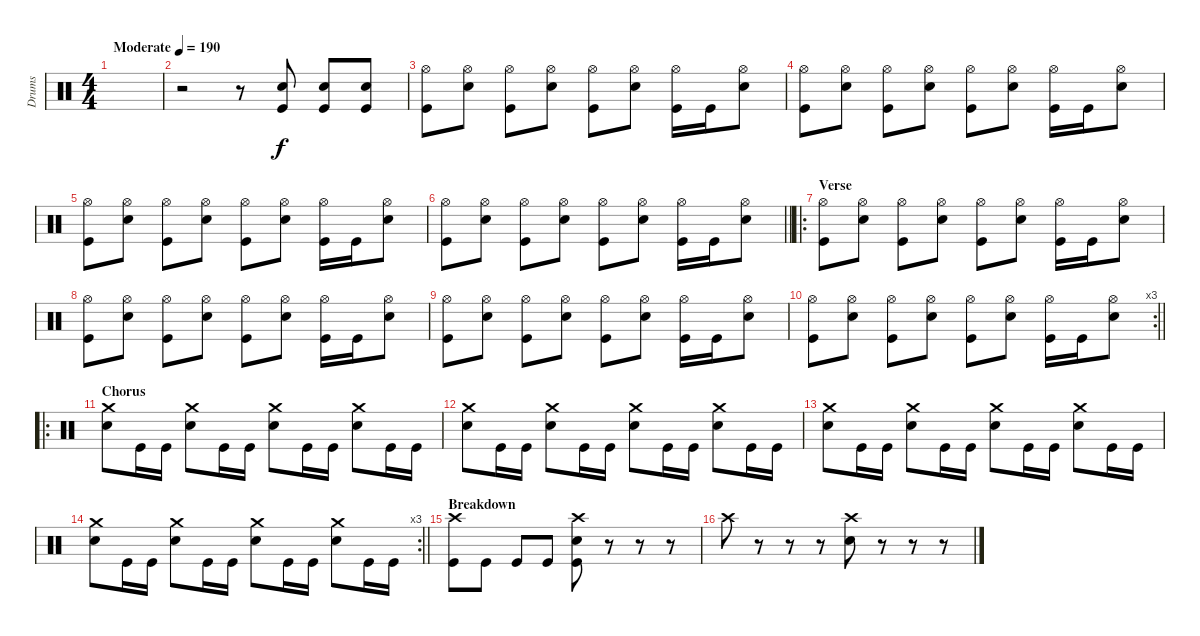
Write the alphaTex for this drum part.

\track ("Drums" "Drums") {instrument percussion}
\staff {score}
\articulation defaults
\ts (4 4)
\tempo (190 "Moderate")
\clef neutral
\ks c
|
r.2 r.8 ("Snare (hit) 2" "Kick (hit)").8 ("Snare (hit) 2" "Kick (hit)").8 ("Snare (hit) 2" "Kick (hit)").8 |
("Hi-Hat (open)" "Kick (hit)").8 ("Hi-Hat (open)" "Snare (hit) 2").8 ("Hi-Hat (open)" "Kick (hit)").8 ("Hi-Hat (open)" "Snare (hit) 2").8 ("Hi-Hat (open)" "Kick (hit)").8 ("Hi-Hat (open)" "Snare (hit) 2").8 ("Hi-Hat (open)" "Kick (hit)").16 "Kick (hit)".16 ("Hi-Hat (open)" "Snare (hit) 2").8 |
("Hi-Hat (open)" "Kick (hit)").8 ("Hi-Hat (open)" "Snare (hit) 2").8 ("Hi-Hat (open)" "Kick (hit)").8 ("Hi-Hat (open)" "Snare (hit) 2").8 ("Hi-Hat (open)" "Kick (hit)").8 ("Hi-Hat (open)" "Snare (hit) 2").8 ("Hi-Hat (open)" "Kick (hit)").16 "Kick (hit)".16 ("Hi-Hat (open)" "Snare (hit) 2").8 |
("Hi-Hat (open)" "Kick (hit)").8 ("Hi-Hat (open)" "Snare (hit) 2").8 ("Hi-Hat (open)" "Kick (hit)").8 ("Hi-Hat (open)" "Snare (hit) 2").8 ("Hi-Hat (open)" "Kick (hit)").8 ("Hi-Hat (open)" "Snare (hit) 2").8 ("Hi-Hat (open)" "Kick (hit)").16 "Kick (hit)".16 ("Hi-Hat (open)" "Snare (hit) 2").8 |
\barLineRight lightlight
("Hi-Hat (open)" "Kick (hit)").8 ("Hi-Hat (open)" "Snare (hit) 2").8 ("Hi-Hat (open)" "Kick (hit)").8 ("Hi-Hat (open)" "Snare (hit) 2").8 ("Hi-Hat (open)" "Kick (hit)").8 ("Hi-Hat (open)" "Snare (hit) 2").8 ("Hi-Hat (open)" "Kick (hit)").16 "Kick (hit)".16 ("Hi-Hat (open)" "Snare (hit) 2").8 |
\ro
\section ("" "Verse")
("Hi-Hat (open)" "Kick (hit)").8 ("Hi-Hat (open)" "Snare (hit) 2").8 ("Hi-Hat (open)" "Kick (hit)").8 ("Hi-Hat (open)" "Snare (hit) 2").8 ("Hi-Hat (open)" "Kick (hit)").8 ("Hi-Hat (open)" "Snare (hit) 2").8 ("Hi-Hat (open)" "Kick (hit)").16 "Kick (hit)".16 ("Hi-Hat (open)" "Snare (hit) 2").8 |
("Hi-Hat (open)" "Kick (hit)").8 ("Hi-Hat (open)" "Snare (hit) 2").8 ("Hi-Hat (open)" "Kick (hit)").8 ("Hi-Hat (open)" "Snare (hit) 2").8 ("Hi-Hat (open)" "Kick (hit)").8 ("Hi-Hat (open)" "Snare (hit) 2").8 ("Hi-Hat (open)" "Kick (hit)").16 "Kick (hit)".16 ("Hi-Hat (open)" "Snare (hit) 2").8 |
("Hi-Hat (open)" "Kick (hit)").8 ("Hi-Hat (open)" "Snare (hit) 2").8 ("Hi-Hat (open)" "Kick (hit)").8 ("Hi-Hat (open)" "Snare (hit) 2").8 ("Hi-Hat (open)" "Kick (hit)").8 ("Hi-Hat (open)" "Snare (hit) 2").8 ("Hi-Hat (open)" "Kick (hit)").16 "Kick (hit)".16 ("Hi-Hat (open)" "Snare (hit) 2").8 |
\rc 3
\barLineRight lightlight
("Hi-Hat (open)" "Kick (hit)").8 ("Hi-Hat (open)" "Snare (hit) 2").8 ("Hi-Hat (open)" "Kick (hit)").8 ("Hi-Hat (open)" "Snare (hit) 2").8 ("Hi-Hat (open)" "Kick (hit)").8 ("Hi-Hat (open)" "Snare (hit) 2").8 ("Hi-Hat (open)" "Kick (hit)").16 "Kick (hit)".16 ("Hi-Hat (open)" "Snare (hit) 2").8 |
\ro
\section ("" "Chorus")
("Crash medium (hit)" "Snare (hit) 2").8 "Kick (hit)".16 "Kick (hit)".16 ("Crash medium (hit)" "Snare (hit) 2").8 "Kick (hit)".16 "Kick (hit)".16 ("Crash medium (hit)" "Snare (hit) 2").8 "Kick (hit)".16 "Kick (hit)".16 ("Crash medium (hit)" "Snare (hit) 2").8 "Kick (hit)".16 "Kick (hit)".16 |
("Crash medium (hit)" "Snare (hit) 2").8 "Kick (hit)".16 "Kick (hit)".16 ("Crash medium (hit)" "Snare (hit) 2").8 "Kick (hit)".16 "Kick (hit)".16 ("Crash medium (hit)" "Snare (hit) 2").8 "Kick (hit)".16 "Kick (hit)".16 ("Crash medium (hit)" "Snare (hit) 2").8 "Kick (hit)".16 "Kick (hit)".16 |
("Crash medium (hit)" "Snare (hit) 2").8 "Kick (hit)".16 "Kick (hit)".16 ("Crash medium (hit)" "Snare (hit) 2").8 "Kick (hit)".16 "Kick (hit)".16 ("Crash medium (hit)" "Snare (hit) 2").8 "Kick (hit)".16 "Kick (hit)".16 ("Crash medium (hit)" "Snare (hit) 2").8 "Kick (hit)".16 "Kick (hit)".16 |
\rc 3
\barLineRight lightlight
("Crash medium (hit)" "Snare (hit) 2").8 "Kick (hit)".16 "Kick (hit)".16 ("Crash medium (hit)" "Snare (hit) 2").8 "Kick (hit)".16 "Kick (hit)".16 ("Crash medium (hit)" "Snare (hit) 2").8 "Kick (hit)".16 "Kick (hit)".16 ("Crash medium (hit)" "Snare (hit) 2").8 "Kick (hit)".16 "Kick (hit)".16 |
\section ("" "Breakdown")
("Crash high (hit)" "Kick (hit)").8 "Kick (hit)".8 "Kick (hit)".8 "Kick (hit)".8 ("Crash high (hit)" "Snare (hit) 2" "Kick (hit)").8 r.8 r.8 r.8 |
"Crash high (hit)".8 r.8 r.8 r.8 ("Crash high (hit)" "Snare (hit) 2").8 r.8 r.8 r.8
